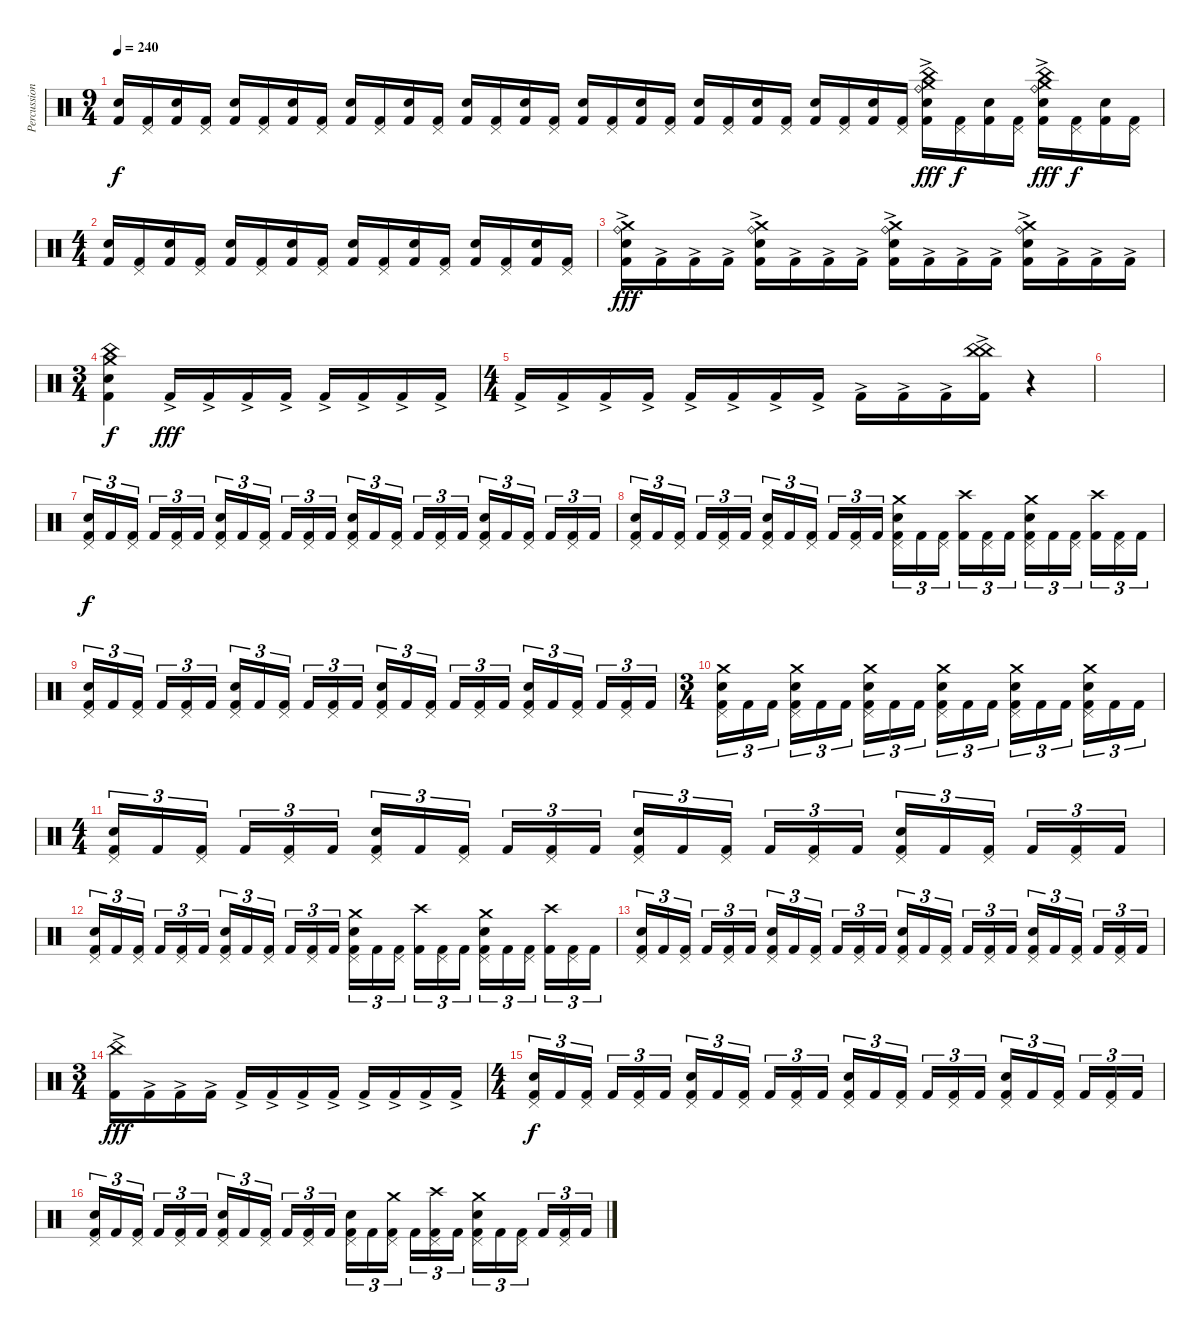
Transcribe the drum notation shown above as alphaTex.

\track ("Percussions" "Percussion") {instrument percussion}
\staff {score}
\articulation defaults
\ts (9 4)
\tempo 240
\clef neutral
\ks c
("Snare (hit) 2" "Kick (hit) 2").16{dy f} ("Pedal Hi-Hat (hit)" "Kick (hit) 2").16 ("Snare (hit) 2" "Kick (hit) 2").16 ("Pedal Hi-Hat (hit)" "Kick (hit) 2").16 ("Snare (hit) 2" "Kick (hit) 2").16 ("Pedal Hi-Hat (hit)" "Kick (hit) 2").16 ("Snare (hit) 2" "Kick (hit) 2").16 ("Pedal Hi-Hat (hit)" "Kick (hit) 2").16 ("Snare (hit) 2" "Kick (hit) 2").16 ("Pedal Hi-Hat (hit)" "Kick (hit) 2").16 ("Snare (hit) 2" "Kick (hit) 2").16 ("Pedal Hi-Hat (hit)" "Kick (hit) 2").16 ("Snare (hit) 2" "Kick (hit) 2").16 ("Pedal Hi-Hat (hit)" "Kick (hit) 2").16 ("Snare (hit) 2" "Kick (hit) 2").16 ("Pedal Hi-Hat (hit)" "Kick (hit) 2").16 ("Snare (hit) 2" "Kick (hit) 2").16 ("Pedal Hi-Hat (hit)" "Kick (hit) 2").16 ("Snare (hit) 2" "Kick (hit) 2").16 ("Pedal Hi-Hat (hit)" "Kick (hit) 2").16 ("Snare (hit) 2" "Kick (hit) 2").16 ("Pedal Hi-Hat (hit)" "Kick (hit) 2").16 ("Snare (hit) 2" "Kick (hit) 2").16 ("Pedal Hi-Hat (hit)" "Kick (hit) 2").16 ("Snare (hit) 2" "Kick (hit) 2").16 ("Pedal Hi-Hat (hit)" "Kick (hit) 2").16 ("Snare (hit) 2" "Kick (hit) 2").16 ("Pedal Hi-Hat (hit)" "Kick (hit) 2").16 ("Ride (bell)"{ac} "Crash medium (hit)" "China (hit)" "Snare (hit) 2" "Kick (hit) 2").16{dy fff} ("Pedal Hi-Hat (hit)" "Kick (hit) 2").16{dy f} ("Snare (hit) 2" "Kick (hit) 2").16 ("Pedal Hi-Hat (hit)" "Kick (hit) 2").16 ("Ride (bell)"{ac} "Crash medium (hit)" "China (hit)" "Snare (hit) 2" "Kick (hit) 2").16{dy fff} ("Pedal Hi-Hat (hit)" "Kick (hit) 2").16{dy f} ("Snare (hit) 2" "Kick (hit) 2").16 ("Pedal Hi-Hat (hit)" "Kick (hit) 2").16 |
\ts (4 4)
("Snare (hit) 2" "Kick (hit) 2").16 ("Pedal Hi-Hat (hit)" "Kick (hit) 2").16 ("Snare (hit) 2" "Kick (hit) 2").16 ("Pedal Hi-Hat (hit)" "Kick (hit) 2").16 ("Snare (hit) 2" "Kick (hit) 2").16 ("Pedal Hi-Hat (hit)" "Kick (hit) 2").16 ("Snare (hit) 2" "Kick (hit) 2").16 ("Pedal Hi-Hat (hit)" "Kick (hit) 2").16 ("Snare (hit) 2" "Kick (hit) 2").16 ("Pedal Hi-Hat (hit)" "Kick (hit) 2").16 ("Snare (hit) 2" "Kick (hit) 2").16 ("Pedal Hi-Hat (hit)" "Kick (hit) 2").16 ("Snare (hit) 2" "Kick (hit) 2").16 ("Pedal Hi-Hat (hit)" "Kick (hit) 2").16 ("Snare (hit) 2" "Kick (hit) 2").16 ("Pedal Hi-Hat (hit)" "Kick (hit) 2").16 |
("Snare (hit) 2" "Crash medium (hit)" "Ride (bell)" "Kick (hit) 2"{ac}).16{dy fff} "Kick (hit) 2"{ac}.16 "Kick (hit) 2"{ac}.16 "Kick (hit) 2"{ac}.16 ("Snare (hit) 2" "Crash medium (hit)" "Ride (bell)" "Kick (hit) 2"{ac}).16 "Kick (hit) 2"{ac}.16 "Kick (hit) 2"{ac}.16 "Kick (hit) 2"{ac}.16 ("Snare (hit) 2" "Crash medium (hit)" "Ride (bell)" "Kick (hit) 2"{ac}).16 "Kick (hit) 2"{ac}.16 "Kick (hit) 2"{ac}.16 "Kick (hit) 2"{ac}.16 ("Snare (hit) 2" "Crash medium (hit)" "Ride (bell)" "Kick (hit) 2"{ac}).16 "Kick (hit) 2"{ac}.16 "Kick (hit) 2"{ac}.16 "Kick (hit) 2"{ac}.16 |
\ts (3 4)
("China (hit)" "Crash medium (hit)" "Snare (hit) 2" "Kick (hit) 2").4{dy f} "Kick (hit) 2"{ac}.16{dy fff} "Kick (hit) 2"{ac}.16 "Kick (hit) 2"{ac}.16 "Kick (hit) 2"{ac}.16 "Kick (hit) 2"{ac}.16 "Kick (hit) 2"{ac}.16 "Kick (hit) 2"{ac}.16 "Kick (hit) 2"{ac}.16 |
\ts (4 4)
"Kick (hit) 2"{ac}.16 "Kick (hit) 2"{ac}.16 "Kick (hit) 2"{ac}.16 "Kick (hit) 2"{ac}.16 "Kick (hit) 2"{ac}.16 "Kick (hit) 2"{ac}.16 "Kick (hit) 2"{ac}.16 "Kick (hit) 2"{ac}.16 "Kick (hit) 2"{ac}.16 "Kick (hit) 2"{ac}.16 "Kick (hit) 2"{ac}.16 ("China (hit)" "China (hit)" "Kick (hit) 2"{ac}).16 r.4 |
|
("Snare (hit) 2" "Pedal Hi-Hat (hit)" "Kick (hit) 2").16{tu (3 2) dy f} "Kick (hit) 2".16{tu (3 2)} ("Pedal Hi-Hat (hit)" "Kick (hit) 2").16{tu (3 2)} "Kick (hit) 2".16{tu (3 2)} ("Pedal Hi-Hat (hit)" "Kick (hit) 2").16{tu (3 2)} "Kick (hit) 2".16{tu (3 2)} ("Snare (hit) 2" "Pedal Hi-Hat (hit)" "Kick (hit) 2").16{tu (3 2)} "Kick (hit) 2".16{tu (3 2)} ("Pedal Hi-Hat (hit)" "Kick (hit) 2").16{tu (3 2)} "Kick (hit) 2".16{tu (3 2)} ("Pedal Hi-Hat (hit)" "Kick (hit) 2").16{tu (3 2)} "Kick (hit) 2".16{tu (3 2)} ("Snare (hit) 2" "Pedal Hi-Hat (hit)" "Kick (hit) 2").16{tu (3 2)} "Kick (hit) 2".16{tu (3 2)} ("Pedal Hi-Hat (hit)" "Kick (hit) 2").16{tu (3 2)} "Kick (hit) 2".16{tu (3 2)} ("Pedal Hi-Hat (hit)" "Kick (hit) 2").16{tu (3 2)} "Kick (hit) 2".16{tu (3 2)} ("Snare (hit) 2" "Pedal Hi-Hat (hit)" "Kick (hit) 2").16{tu (3 2)} "Kick (hit) 2".16{tu (3 2)} ("Pedal Hi-Hat (hit)" "Kick (hit) 2").16{tu (3 2)} "Kick (hit) 2".16{tu (3 2)} ("Pedal Hi-Hat (hit)" "Kick (hit) 2").16{tu (3 2)} "Kick (hit) 2".16{tu (3 2)} |
("Snare (hit) 2" "Pedal Hi-Hat (hit)" "Kick (hit) 2").16{tu (3 2)} "Kick (hit) 2".16{tu (3 2)} ("Pedal Hi-Hat (hit)" "Kick (hit) 2").16{tu (3 2)} "Kick (hit) 2".16{tu (3 2)} ("Pedal Hi-Hat (hit)" "Kick (hit) 2").16{tu (3 2)} "Kick (hit) 2".16{tu (3 2)} ("Snare (hit) 2" "Pedal Hi-Hat (hit)" "Kick (hit) 2").16{tu (3 2)} "Kick (hit) 2".16{tu (3 2)} ("Pedal Hi-Hat (hit)" "Kick (hit) 2").16{tu (3 2)} "Kick (hit) 2".16{tu (3 2)} ("Pedal Hi-Hat (hit)" "Kick (hit) 2").16{tu (3 2)} "Kick (hit) 2".16{tu (3 2)} ("Crash medium (hit)" "Snare (hit) 2" "Pedal Hi-Hat (hit)" "Kick (hit) 2").16{tu (3 2)} "Kick (hit) 2".16{tu (3 2)} ("Pedal Hi-Hat (hit)" "Kick (hit) 2").16{tu (3 2)} ("Crash high (hit)" "Kick (hit) 2").16{tu (3 2)} ("Pedal Hi-Hat (hit)" "Kick (hit) 2").16{tu (3 2)} "Kick (hit) 2".16{tu (3 2)} ("Crash medium (hit)" "Snare (hit) 2" "Pedal Hi-Hat (hit)" "Kick (hit) 2").16{tu (3 2)} "Kick (hit) 2".16{tu (3 2)} ("Pedal Hi-Hat (hit)" "Kick (hit) 2").16{tu (3 2)} ("Crash high (hit)" "Kick (hit) 2").16{tu (3 2)} ("Pedal Hi-Hat (hit)" "Kick (hit) 2").16{tu (3 2)} "Kick (hit) 2".16{tu (3 2)} |
("Snare (hit) 2" "Pedal Hi-Hat (hit)" "Kick (hit) 2").16{tu (3 2)} "Kick (hit) 2".16{tu (3 2)} ("Pedal Hi-Hat (hit)" "Kick (hit) 2").16{tu (3 2)} "Kick (hit) 2".16{tu (3 2)} ("Pedal Hi-Hat (hit)" "Kick (hit) 2").16{tu (3 2)} "Kick (hit) 2".16{tu (3 2)} ("Snare (hit) 2" "Pedal Hi-Hat (hit)" "Kick (hit) 2").16{tu (3 2)} "Kick (hit) 2".16{tu (3 2)} ("Pedal Hi-Hat (hit)" "Kick (hit) 2").16{tu (3 2)} "Kick (hit) 2".16{tu (3 2)} ("Pedal Hi-Hat (hit)" "Kick (hit) 2").16{tu (3 2)} "Kick (hit) 2".16{tu (3 2)} ("Snare (hit) 2" "Pedal Hi-Hat (hit)" "Kick (hit) 2").16{tu (3 2)} "Kick (hit) 2".16{tu (3 2)} ("Pedal Hi-Hat (hit)" "Kick (hit) 2").16{tu (3 2)} "Kick (hit) 2".16{tu (3 2)} ("Pedal Hi-Hat (hit)" "Kick (hit) 2").16{tu (3 2)} "Kick (hit) 2".16{tu (3 2)} ("Snare (hit) 2" "Pedal Hi-Hat (hit)" "Kick (hit) 2").16{tu (3 2)} "Kick (hit) 2".16{tu (3 2)} ("Pedal Hi-Hat (hit)" "Kick (hit) 2").16{tu (3 2)} "Kick (hit) 2".16{tu (3 2)} ("Pedal Hi-Hat (hit)" "Kick (hit) 2").16{tu (3 2)} "Kick (hit) 2".16{tu (3 2)} |
\ts (3 4)
("Crash medium (hit)" "Snare (hit) 2" "Pedal Hi-Hat (hit)" "Kick (hit) 2").16{tu (3 2)} "Kick (hit) 2".16{tu (3 2)} "Kick (hit) 2".16{tu (3 2)} ("Crash medium (hit)" "Snare (hit) 2" "Pedal Hi-Hat (hit)" "Kick (hit) 2").16{tu (3 2)} "Kick (hit) 2".16{tu (3 2)} "Kick (hit) 2".16{tu (3 2)} ("Crash medium (hit)" "Snare (hit) 2" "Pedal Hi-Hat (hit)" "Kick (hit) 2").16{tu (3 2)} "Kick (hit) 2".16{tu (3 2)} "Kick (hit) 2".16{tu (3 2)} ("Crash medium (hit)" "Snare (hit) 2" "Pedal Hi-Hat (hit)" "Kick (hit) 2").16{tu (3 2)} "Kick (hit) 2".16{tu (3 2)} "Kick (hit) 2".16{tu (3 2)} ("Crash medium (hit)" "Snare (hit) 2" "Pedal Hi-Hat (hit)" "Kick (hit) 2").16{tu (3 2)} "Kick (hit) 2".16{tu (3 2)} "Kick (hit) 2".16{tu (3 2)} ("Crash medium (hit)" "Snare (hit) 2" "Pedal Hi-Hat (hit)" "Kick (hit) 2").16{tu (3 2)} "Kick (hit) 2".16{tu (3 2)} "Kick (hit) 2".16{tu (3 2)} |
\ts (4 4)
("Snare (hit) 2" "Pedal Hi-Hat (hit)" "Kick (hit) 2").16{tu (3 2)} "Kick (hit) 2".16{tu (3 2)} ("Pedal Hi-Hat (hit)" "Kick (hit) 2").16{tu (3 2)} "Kick (hit) 2".16{tu (3 2)} ("Pedal Hi-Hat (hit)" "Kick (hit) 2").16{tu (3 2)} "Kick (hit) 2".16{tu (3 2)} ("Snare (hit) 2" "Pedal Hi-Hat (hit)" "Kick (hit) 2").16{tu (3 2)} "Kick (hit) 2".16{tu (3 2)} ("Pedal Hi-Hat (hit)" "Kick (hit) 2").16{tu (3 2)} "Kick (hit) 2".16{tu (3 2)} ("Pedal Hi-Hat (hit)" "Kick (hit) 2").16{tu (3 2)} "Kick (hit) 2".16{tu (3 2)} ("Snare (hit) 2" "Pedal Hi-Hat (hit)" "Kick (hit) 2").16{tu (3 2)} "Kick (hit) 2".16{tu (3 2)} ("Pedal Hi-Hat (hit)" "Kick (hit) 2").16{tu (3 2)} "Kick (hit) 2".16{tu (3 2)} ("Pedal Hi-Hat (hit)" "Kick (hit) 2").16{tu (3 2)} "Kick (hit) 2".16{tu (3 2)} ("Snare (hit) 2" "Pedal Hi-Hat (hit)" "Kick (hit) 2").16{tu (3 2)} "Kick (hit) 2".16{tu (3 2)} ("Pedal Hi-Hat (hit)" "Kick (hit) 2").16{tu (3 2)} "Kick (hit) 2".16{tu (3 2)} ("Pedal Hi-Hat (hit)" "Kick (hit) 2").16{tu (3 2)} "Kick (hit) 2".16{tu (3 2)} |
("Snare (hit) 2" "Pedal Hi-Hat (hit)" "Kick (hit) 2").16{tu (3 2)} "Kick (hit) 2".16{tu (3 2)} ("Pedal Hi-Hat (hit)" "Kick (hit) 2").16{tu (3 2)} "Kick (hit) 2".16{tu (3 2)} ("Pedal Hi-Hat (hit)" "Kick (hit) 2").16{tu (3 2)} "Kick (hit) 2".16{tu (3 2)} ("Snare (hit) 2" "Pedal Hi-Hat (hit)" "Kick (hit) 2").16{tu (3 2)} "Kick (hit) 2".16{tu (3 2)} ("Pedal Hi-Hat (hit)" "Kick (hit) 2").16{tu (3 2)} "Kick (hit) 2".16{tu (3 2)} ("Pedal Hi-Hat (hit)" "Kick (hit) 2").16{tu (3 2)} "Kick (hit) 2".16{tu (3 2)} ("Crash medium (hit)" "Snare (hit) 2" "Pedal Hi-Hat (hit)" "Kick (hit) 2").16{tu (3 2)} "Kick (hit) 2".16{tu (3 2)} ("Pedal Hi-Hat (hit)" "Kick (hit) 2").16{tu (3 2)} ("Crash high (hit)" "Kick (hit) 2").16{tu (3 2)} ("Pedal Hi-Hat (hit)" "Kick (hit) 2").16{tu (3 2)} "Kick (hit) 2".16{tu (3 2)} ("Crash medium (hit)" "Snare (hit) 2" "Pedal Hi-Hat (hit)" "Kick (hit) 2").16{tu (3 2)} "Kick (hit) 2".16{tu (3 2)} ("Pedal Hi-Hat (hit)" "Kick (hit) 2").16{tu (3 2)} ("Crash high (hit)" "Kick (hit) 2").16{tu (3 2)} ("Pedal Hi-Hat (hit)" "Kick (hit) 2").16{tu (3 2)} "Kick (hit) 2".16{tu (3 2)} |
("Snare (hit) 2" "Pedal Hi-Hat (hit)" "Kick (hit) 2").16{tu (3 2)} "Kick (hit) 2".16{tu (3 2)} ("Pedal Hi-Hat (hit)" "Kick (hit) 2").16{tu (3 2)} "Kick (hit) 2".16{tu (3 2)} ("Pedal Hi-Hat (hit)" "Kick (hit) 2").16{tu (3 2)} "Kick (hit) 2".16{tu (3 2)} ("Snare (hit) 2" "Pedal Hi-Hat (hit)" "Kick (hit) 2").16{tu (3 2)} "Kick (hit) 2".16{tu (3 2)} ("Pedal Hi-Hat (hit)" "Kick (hit) 2").16{tu (3 2)} "Kick (hit) 2".16{tu (3 2)} ("Pedal Hi-Hat (hit)" "Kick (hit) 2").16{tu (3 2)} "Kick (hit) 2".16{tu (3 2)} ("Snare (hit) 2" "Pedal Hi-Hat (hit)" "Kick (hit) 2").16{tu (3 2)} "Kick (hit) 2".16{tu (3 2)} ("Pedal Hi-Hat (hit)" "Kick (hit) 2").16{tu (3 2)} "Kick (hit) 2".16{tu (3 2)} ("Pedal Hi-Hat (hit)" "Kick (hit) 2").16{tu (3 2)} "Kick (hit) 2".16{tu (3 2)} ("Snare (hit) 2" "Pedal Hi-Hat (hit)" "Kick (hit) 2").16{tu (3 2)} "Kick (hit) 2".16{tu (3 2)} ("Pedal Hi-Hat (hit)" "Kick (hit) 2").16{tu (3 2)} "Kick (hit) 2".16{tu (3 2)} ("Pedal Hi-Hat (hit)" "Kick (hit) 2").16{tu (3 2)} "Kick (hit) 2".16{tu (3 2)} |
\ts (3 4)
("China (hit)" "Kick (hit) 2"{ac}).16{dy fff} "Kick (hit) 2"{ac}.16 "Kick (hit) 2"{ac}.16 "Kick (hit) 2"{ac}.16 "Kick (hit) 2"{ac}.16 "Kick (hit) 2"{ac}.16 "Kick (hit) 2"{ac}.16 "Kick (hit) 2"{ac}.16 "Kick (hit) 2"{ac}.16 "Kick (hit) 2"{ac}.16 "Kick (hit) 2"{ac}.16 "Kick (hit) 2"{ac}.16 |
\ts (4 4)
("Snare (hit) 2" "Pedal Hi-Hat (hit)" "Kick (hit) 2").16{tu (3 2) dy f} "Kick (hit) 2".16{tu (3 2)} ("Pedal Hi-Hat (hit)" "Kick (hit) 2").16{tu (3 2)} "Kick (hit) 2".16{tu (3 2)} ("Pedal Hi-Hat (hit)" "Kick (hit) 2").16{tu (3 2)} "Kick (hit) 2".16{tu (3 2)} ("Snare (hit) 2" "Pedal Hi-Hat (hit)" "Kick (hit) 2").16{tu (3 2)} "Kick (hit) 2".16{tu (3 2)} ("Pedal Hi-Hat (hit)" "Kick (hit) 2").16{tu (3 2)} "Kick (hit) 2".16{tu (3 2)} ("Pedal Hi-Hat (hit)" "Kick (hit) 2").16{tu (3 2)} "Kick (hit) 2".16{tu (3 2)} ("Snare (hit) 2" "Pedal Hi-Hat (hit)" "Kick (hit) 2").16{tu (3 2)} "Kick (hit) 2".16{tu (3 2)} ("Pedal Hi-Hat (hit)" "Kick (hit) 2").16{tu (3 2)} "Kick (hit) 2".16{tu (3 2)} ("Pedal Hi-Hat (hit)" "Kick (hit) 2").16{tu (3 2)} "Kick (hit) 2".16{tu (3 2)} ("Snare (hit) 2" "Pedal Hi-Hat (hit)" "Kick (hit) 2").16{tu (3 2)} "Kick (hit) 2".16{tu (3 2)} ("Pedal Hi-Hat (hit)" "Kick (hit) 2").16{tu (3 2)} "Kick (hit) 2".16{tu (3 2)} ("Pedal Hi-Hat (hit)" "Kick (hit) 2").16{tu (3 2)} "Kick (hit) 2".16{tu (3 2)} |
("Snare (hit) 2" "Pedal Hi-Hat (hit)" "Kick (hit) 2").16{tu (3 2)} "Kick (hit) 2".16{tu (3 2)} ("Pedal Hi-Hat (hit)" "Kick (hit) 2").16{tu (3 2)} "Kick (hit) 2".16{tu (3 2)} ("Pedal Hi-Hat (hit)" "Kick (hit) 2").16{tu (3 2)} "Kick (hit) 2".16{tu (3 2)} ("Snare (hit) 2" "Pedal Hi-Hat (hit)" "Kick (hit) 2").16{tu (3 2)} "Kick (hit) 2".16{tu (3 2)} ("Pedal Hi-Hat (hit)" "Kick (hit) 2").16{tu (3 2)} "Kick (hit) 2".16{tu (3 2)} ("Pedal Hi-Hat (hit)" "Kick (hit) 2").16{tu (3 2)} "Kick (hit) 2".16{tu (3 2)} ("Snare (hit) 2" "Pedal Hi-Hat (hit)" "Kick (hit) 2").16{tu (3 2)} "Kick (hit) 2".16{tu (3 2)} ("Crash medium (hit)" "Pedal Hi-Hat (hit)" "Kick (hit) 2").16{tu (3 2)} "Kick (hit) 2".16{tu (3 2)} ("Crash high (hit)" "Pedal Hi-Hat (hit)" "Kick (hit) 2").16{tu (3 2)} "Kick (hit) 2".16{tu (3 2)} ("Crash medium (hit)" "Snare (hit) 2" "Pedal Hi-Hat (hit)" "Kick (hit) 2").16{tu (3 2)} "Kick (hit) 2".16{tu (3 2)} ("Pedal Hi-Hat (hit)" "Kick (hit) 2").16{tu (3 2)} "Kick (hit) 2".16{tu (3 2)} ("Pedal Hi-Hat (hit)" "Kick (hit) 2").16{tu (3 2)} "Kick (hit) 2".16{tu (3 2)}
